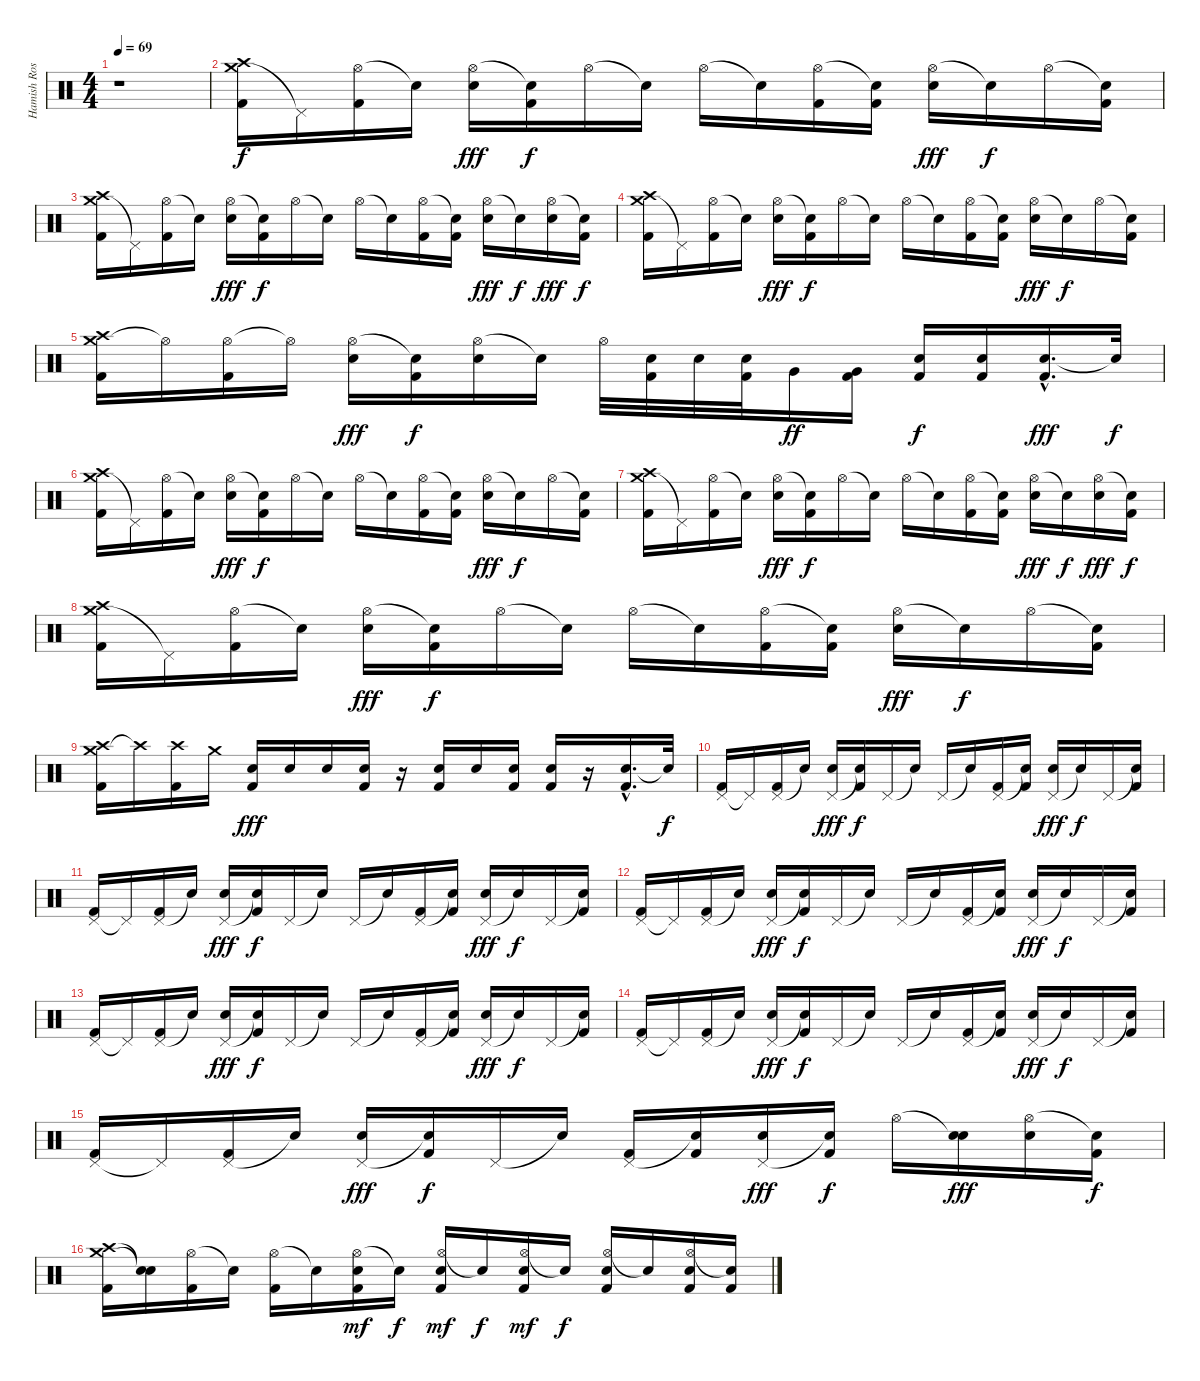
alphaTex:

\track ("Hamish Rosser" "Hamish Ros") {instrument percussion}
\staff {score}
\articulation defaults
\ts (4 4)
\tempo 69
\clef neutral
\ks c
r.1{dy f} |
("Crash medium (hit)" "Crash high (hit)" "Kick (hit) 2").16 "Pedal Hi-Hat (hit)"{t}.16 ("Hi-Hat (open)" "Kick (hit) 2").16 "Snare (hit)"{t}.16 ("Hi-Hat (open)" "Electric Snare (hit)").16{dy fff} ("Snare (hit)"{t} "Kick (hit) 2").16{dy f} "Hi-Hat (open)".16 "Snare (hit)"{t}.16 "Hi-Hat (open)".16 "Snare (hit)"{t}.16 ("Hi-Hat (open)" "Kick (hit) 2").16 ("Snare (hit)"{t} "Kick (hit) 2").16 ("Hi-Hat (open)" "Electric Snare (hit)").16{dy fff} "Snare (hit)"{t}.16{dy f} "Hi-Hat (open)".16 ("Snare (hit)"{t} "Kick (hit) 2").16 |
("Crash medium (hit)" "Crash high (hit)" "Kick (hit) 2").16 "Pedal Hi-Hat (hit)"{t}.16 ("Hi-Hat (open)" "Kick (hit) 2").16 "Snare (hit)"{t}.16 ("Hi-Hat (open)" "Electric Snare (hit)").16{dy fff} ("Snare (hit)"{t} "Kick (hit) 2").16{dy f} "Hi-Hat (open)".16 "Snare (hit)"{t}.16 "Hi-Hat (open)".16 "Snare (hit)"{t}.16 ("Hi-Hat (open)" "Kick (hit) 2").16 ("Snare (hit)"{t} "Kick (hit) 2").16 ("Hi-Hat (open)" "Electric Snare (hit)").16{dy fff} "Snare (hit)"{t}.16{dy f} ("Hi-Hat (open)" "Electric Snare (hit)").16{dy fff} ("Snare (hit)"{t} "Kick (hit) 2").16{dy f} |
("Crash medium (hit)" "Crash high (hit)" "Kick (hit) 2").16 "Pedal Hi-Hat (hit)"{t}.16 ("Hi-Hat (open)" "Kick (hit) 2").16 "Snare (hit)"{t}.16 ("Hi-Hat (open)" "Electric Snare (hit)").16{dy fff} ("Snare (hit)"{t} "Kick (hit) 2").16{dy f} "Hi-Hat (open)".16 "Snare (hit)"{t}.16 "Hi-Hat (open)".16 "Snare (hit)"{t}.16 ("Hi-Hat (open)" "Kick (hit) 2").16 ("Snare (hit)"{t} "Kick (hit) 2").16 ("Hi-Hat (open)" "Electric Snare (hit)").16{dy fff} "Snare (hit)"{t}.16{dy f} "Hi-Hat (open)".16 ("Snare (hit)"{t} "Kick (hit) 2").16 |
("Crash medium (hit)" "Crash high (hit)" "Kick (hit) 2").16 "Hi-Hat (open)"{t}.16 ("Hi-Hat (open)" "Kick (hit) 2").16 "Hi-Hat (open)"{t}.16 ("Hi-Hat (open)" "Electric Snare (hit)").16{dy fff} ("Snare (hit)"{t} "Kick (hit) 2").16{dy f} ("Hi-Hat (open)" "Snare (hit) 2").16 "Snare (hit)"{t}.16 "Hi-Hat (open)".32 ("Snare (hit) 2" "Kick (hit) 2").32 "Snare (hit) 2".32 ("Snare (hit) 2" "Kick (hit) 2").32 "Very Low Tom (hit)".16{dy ff} ("Very Low Tom (hit)" "Kick (hit) 2").16 ("Snare (hit) 2" "Kick (hit) 2").16{dy f} ("Snare (hit) 2" "Kick (hit) 2").16 ("Electric Snare (hit)"{hac} "Kick (hit) 2"{hac}).16{d dy fff} "Snare (hit)"{t}.32{dy f} |
("Crash medium (hit)" "Crash high (hit)" "Kick (hit) 2").16 "Pedal Hi-Hat (hit)"{t}.16 ("Hi-Hat (open)" "Kick (hit) 2").16 "Snare (hit)"{t}.16 ("Hi-Hat (open)" "Electric Snare (hit)").16{dy fff} ("Snare (hit)"{t} "Kick (hit) 2").16{dy f} "Hi-Hat (open)".16 "Snare (hit)"{t}.16 "Hi-Hat (open)".16 "Snare (hit)"{t}.16 ("Hi-Hat (open)" "Kick (hit) 2").16 ("Snare (hit)"{t} "Kick (hit) 2").16 ("Hi-Hat (open)" "Electric Snare (hit)").16{dy fff} "Snare (hit)"{t}.16{dy f} "Hi-Hat (open)".16 ("Snare (hit)"{t} "Kick (hit) 2").16 |
("Crash medium (hit)" "Crash high (hit)" "Kick (hit) 2").16 "Pedal Hi-Hat (hit)"{t}.16 ("Hi-Hat (open)" "Kick (hit) 2").16 "Snare (hit)"{t}.16 ("Hi-Hat (open)" "Electric Snare (hit)").16{dy fff} ("Snare (hit)"{t} "Kick (hit) 2").16{dy f} "Hi-Hat (open)".16 "Snare (hit)"{t}.16 "Hi-Hat (open)".16 "Snare (hit)"{t}.16 ("Hi-Hat (open)" "Kick (hit) 2").16 ("Snare (hit)"{t} "Kick (hit) 2").16 ("Hi-Hat (open)" "Electric Snare (hit)").16{dy fff} "Snare (hit)"{t}.16{dy f} ("Hi-Hat (open)" "Electric Snare (hit)").16{dy fff} ("Snare (hit)"{t} "Kick (hit) 2").16{dy f} |
("Crash medium (hit)" "Crash high (hit)" "Kick (hit) 2").16 "Pedal Hi-Hat (hit)"{t}.16 ("Hi-Hat (open)" "Kick (hit) 2").16 "Snare (hit)"{t}.16 ("Hi-Hat (open)" "Electric Snare (hit)").16{dy fff} ("Snare (hit)"{t} "Kick (hit) 2").16{dy f} "Hi-Hat (open)".16 "Snare (hit)"{t}.16 "Hi-Hat (open)".16 "Snare (hit)"{t}.16 ("Hi-Hat (open)" "Kick (hit) 2").16 ("Snare (hit)"{t} "Kick (hit) 2").16 ("Hi-Hat (open)" "Electric Snare (hit)").16{dy fff} "Snare (hit)"{t}.16{dy f} "Hi-Hat (open)".16 ("Snare (hit)"{t} "Kick (hit) 2").16 |
("Crash medium (hit)" "Crash high (hit)" "Kick (hit) 2").16 "Crash high (hit)"{t}.16 ("Crash high (hit)" "Kick (hit) 2").16 "Crash medium (hit)".16 ("Electric Snare (hit)" "Kick (hit) 2").16{dy fff} "Electric Snare (hit)".16 "Electric Snare (hit)".16 ("Electric Snare (hit)" "Kick (hit) 2").16 r.16 ("Electric Snare (hit)" "Kick (hit) 2").16 "Electric Snare (hit)".16 ("Electric Snare (hit)" "Kick (hit) 2").16 ("Electric Snare (hit)" "Kick (hit) 2").16 r.16 ("Electric Snare (hit)"{hac} "Kick (hit) 2"{hac}).16{d} "Snare (hit)"{t}.32{dy f} |
("Pedal Hi-Hat (hit)" "Kick (hit) 2").16 "Pedal Hi-Hat (hit)"{t}.16 ("Pedal Hi-Hat (hit)" "Kick (hit) 2").16 "Snare (hit)"{t}.16 ("Pedal Hi-Hat (hit)" "Electric Snare (hit)").16{dy fff} ("Snare (hit)"{t} "Kick (hit) 2").16{dy f} "Pedal Hi-Hat (hit)".16 "Snare (hit)"{t}.16 "Pedal Hi-Hat (hit)".16 "Snare (hit)"{t}.16 ("Pedal Hi-Hat (hit)" "Kick (hit) 2").16 ("Snare (hit)"{t} "Kick (hit) 2").16 ("Pedal Hi-Hat (hit)" "Electric Snare (hit)").16{dy fff} "Snare (hit)"{t}.16{dy f} "Pedal Hi-Hat (hit)".16 ("Snare (hit)"{t} "Kick (hit) 2").16 |
("Pedal Hi-Hat (hit)" "Kick (hit) 2").16 "Pedal Hi-Hat (hit)"{t}.16 ("Pedal Hi-Hat (hit)" "Kick (hit) 2").16 "Snare (hit)"{t}.16 ("Pedal Hi-Hat (hit)" "Electric Snare (hit)").16{dy fff} ("Snare (hit)"{t} "Kick (hit) 2").16{dy f} "Pedal Hi-Hat (hit)".16 "Snare (hit)"{t}.16 "Pedal Hi-Hat (hit)".16 "Snare (hit)"{t}.16 ("Pedal Hi-Hat (hit)" "Kick (hit) 2").16 ("Snare (hit)"{t} "Kick (hit) 2").16 ("Pedal Hi-Hat (hit)" "Electric Snare (hit)").16{dy fff} "Snare (hit)"{t}.16{dy f} "Pedal Hi-Hat (hit)".16 ("Snare (hit)"{t} "Kick (hit) 2").16 |
("Pedal Hi-Hat (hit)" "Kick (hit) 2").16 "Pedal Hi-Hat (hit)"{t}.16 ("Pedal Hi-Hat (hit)" "Kick (hit) 2").16 "Snare (hit)"{t}.16 ("Pedal Hi-Hat (hit)" "Electric Snare (hit)").16{dy fff} ("Snare (hit)"{t} "Kick (hit) 2").16{dy f} "Pedal Hi-Hat (hit)".16 "Snare (hit)"{t}.16 "Pedal Hi-Hat (hit)".16 "Snare (hit)"{t}.16 ("Pedal Hi-Hat (hit)" "Kick (hit) 2").16 ("Snare (hit)"{t} "Kick (hit) 2").16 ("Pedal Hi-Hat (hit)" "Electric Snare (hit)").16{dy fff} "Snare (hit)"{t}.16{dy f} "Pedal Hi-Hat (hit)".16 ("Snare (hit)"{t} "Kick (hit) 2").16 |
("Pedal Hi-Hat (hit)" "Kick (hit) 2").16 "Pedal Hi-Hat (hit)"{t}.16 ("Pedal Hi-Hat (hit)" "Kick (hit) 2").16 "Snare (hit)"{t}.16 ("Pedal Hi-Hat (hit)" "Electric Snare (hit)").16{dy fff} ("Snare (hit)"{t} "Kick (hit) 2").16{dy f} "Pedal Hi-Hat (hit)".16 "Snare (hit)"{t}.16 "Pedal Hi-Hat (hit)".16 "Snare (hit)"{t}.16 ("Pedal Hi-Hat (hit)" "Kick (hit) 2").16 ("Snare (hit)"{t} "Kick (hit) 2").16 ("Pedal Hi-Hat (hit)" "Electric Snare (hit)").16{dy fff} "Snare (hit)"{t}.16{dy f} "Pedal Hi-Hat (hit)".16 ("Snare (hit)"{t} "Kick (hit) 2").16 |
("Pedal Hi-Hat (hit)" "Kick (hit) 2").16 "Pedal Hi-Hat (hit)"{t}.16 ("Pedal Hi-Hat (hit)" "Kick (hit) 2").16 "Snare (hit)"{t}.16 ("Pedal Hi-Hat (hit)" "Electric Snare (hit)").16{dy fff} ("Snare (hit)"{t} "Kick (hit) 2").16{dy f} "Pedal Hi-Hat (hit)".16 "Snare (hit)"{t}.16 "Pedal Hi-Hat (hit)".16 "Snare (hit)"{t}.16 ("Pedal Hi-Hat (hit)" "Kick (hit) 2").16 ("Snare (hit)"{t} "Kick (hit) 2").16 ("Pedal Hi-Hat (hit)" "Electric Snare (hit)").16{dy fff} "Snare (hit)"{t}.16{dy f} "Pedal Hi-Hat (hit)".16 ("Snare (hit)"{t} "Kick (hit) 2").16 |
("Pedal Hi-Hat (hit)" "Kick (hit) 2").16 "Pedal Hi-Hat (hit)"{t}.16 ("Pedal Hi-Hat (hit)" "Kick (hit) 2").16 "Snare (hit)"{t}.16 ("Pedal Hi-Hat (hit)" "Electric Snare (hit)").16{dy fff} ("Snare (hit)"{t} "Kick (hit) 2").16{dy f} "Pedal Hi-Hat (hit)".16 "Snare (hit)"{t}.16 ("Pedal Hi-Hat (hit)" "Kick (hit) 2").16 ("Snare (hit)"{t} "Kick (hit) 2").16 ("Pedal Hi-Hat (hit)" "Electric Snare (hit)").16{dy fff} ("Snare (hit)"{t} "Kick (hit) 2").16{dy f} "Hi-Hat (open)".16 ("Snare (hit)"{t} "Electric Snare (hit)").16{dy fff} ("Hi-Hat (open)" "Electric Snare (hit)").16 ("Snare (hit)"{t} "Kick (hit) 2").16{dy f} |
("Crash medium (hit)" "Crash high (hit)" "Kick (hit) 2").16 ("Snare (hit)"{t} "Snare (hit)"{t}).16 ("Hi-Hat (open)" "Kick (hit) 2").16 "Snare (hit)"{t}.16 ("Hi-Hat (open)" "Kick (hit) 2").16 "Snare (hit)"{t}.16 ("Hi-Hat (open)" "Snare (hit) 2" "Kick (hit) 2").16{dy mf} "Snare (hit)"{t}.16{dy f} ("Hi-Hat (open)" "Snare (hit) 2" "Kick (hit) 2").16{dy mf} "Snare (hit)"{t}.16{dy f} ("Hi-Hat (open)" "Snare (hit) 2" "Kick (hit) 2").16{dy mf} "Snare (hit)"{t}.16{dy f} ("Hi-Hat (open)" "Snare (hit) 2" "Kick (hit) 2").16 "Snare (hit)"{t}.16 ("Hi-Hat (open)" "Snare (hit) 2" "Kick (hit) 2").16 ("Snare (hit)"{t} "Kick (hit) 2").16
